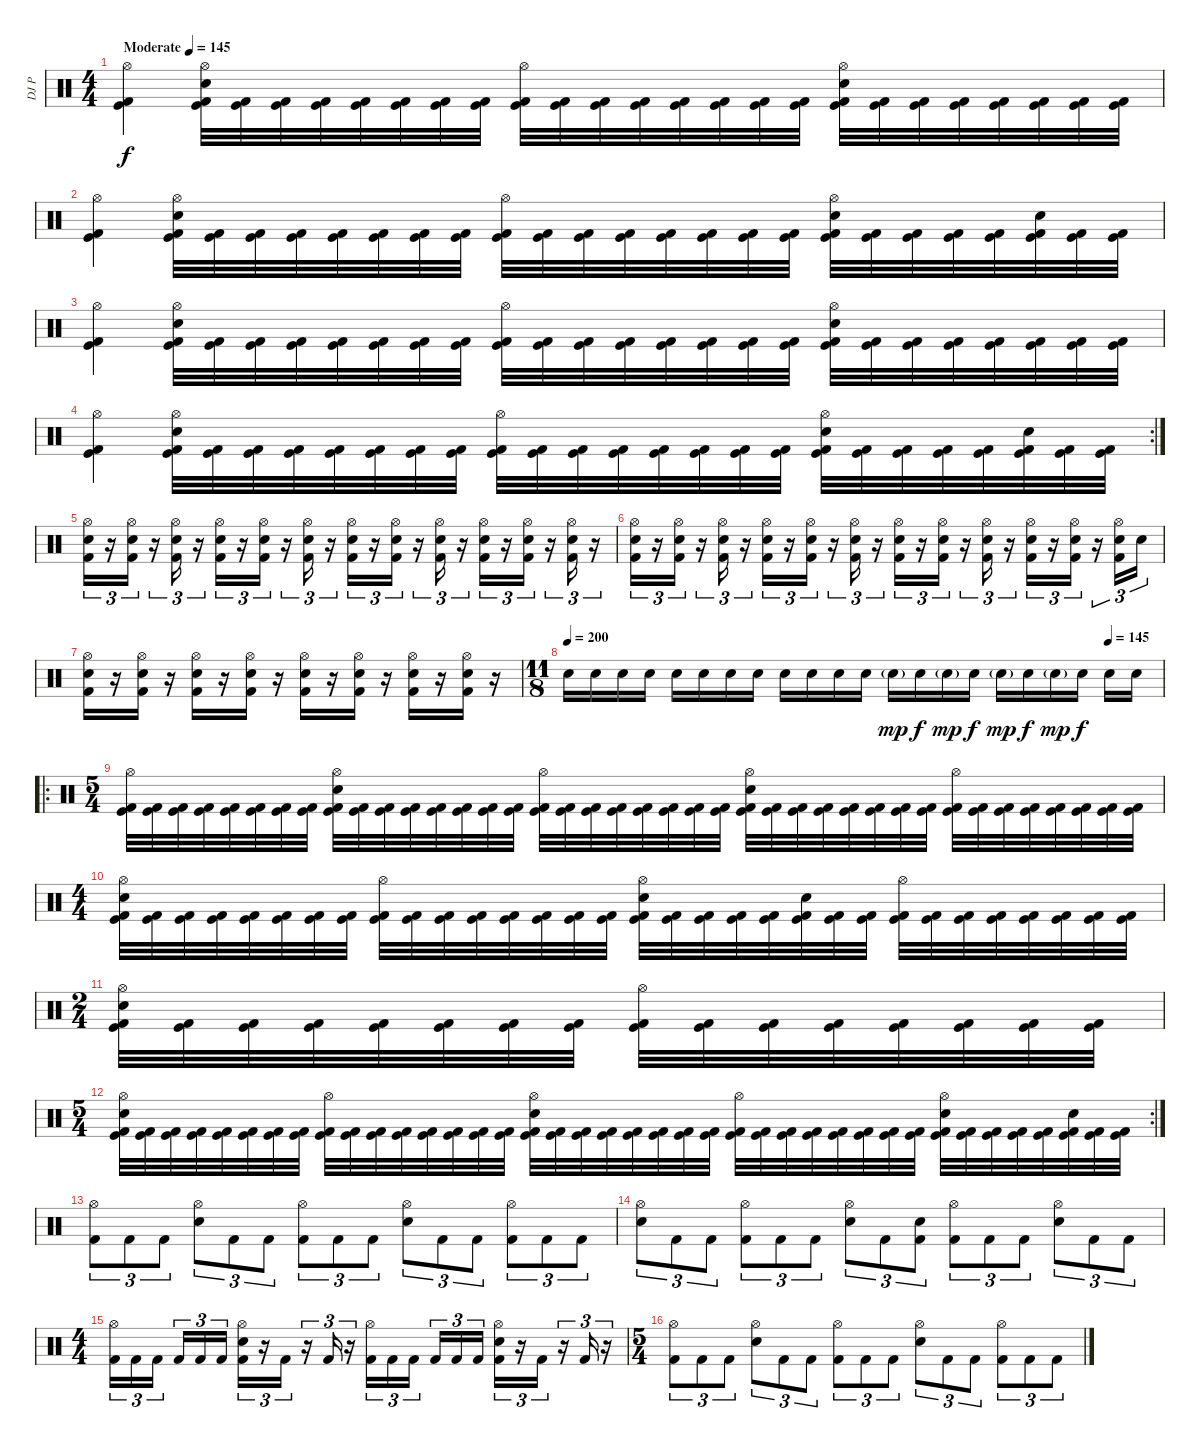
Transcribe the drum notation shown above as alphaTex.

\track ("DJ P" "DJ P") {instrument percussion}
\staff {score}
\articulation defaults
\ts (4 4)
\tempo (145 "Moderate")
\clef neutral
\ks c
("Hi-Hat (open)" "Kick (hit)" "Kick (hit) 2").4{dy f} ("Hi-Hat (open)" "Electric Snare (hit)" "Kick (hit)" "Kick (hit) 2").32 ("Kick (hit)" "Kick (hit) 2").32 ("Kick (hit)" "Kick (hit) 2").32 ("Kick (hit)" "Kick (hit) 2").32 ("Kick (hit)" "Kick (hit) 2").32 ("Kick (hit)" "Kick (hit) 2").32 ("Kick (hit)" "Kick (hit) 2").32 ("Kick (hit)" "Kick (hit) 2").32 ("Hi-Hat (open)" "Kick (hit)" "Kick (hit) 2").32 ("Kick (hit)" "Kick (hit) 2").32 ("Kick (hit)" "Kick (hit) 2").32 ("Kick (hit)" "Kick (hit) 2").32 ("Kick (hit)" "Kick (hit) 2").32 ("Kick (hit)" "Kick (hit) 2").32 ("Kick (hit)" "Kick (hit) 2").32 ("Kick (hit)" "Kick (hit) 2").32 ("Hi-Hat (open)" "Electric Snare (hit)" "Kick (hit)" "Kick (hit) 2").32 ("Kick (hit)" "Kick (hit) 2").32 ("Kick (hit)" "Kick (hit) 2").32 ("Kick (hit)" "Kick (hit) 2").32 ("Kick (hit)" "Kick (hit) 2").32 ("Kick (hit)" "Kick (hit) 2").32 ("Kick (hit)" "Kick (hit) 2").32 ("Kick (hit)" "Kick (hit) 2").32 |
("Hi-Hat (open)" "Kick (hit)" "Kick (hit) 2").4 ("Hi-Hat (open)" "Electric Snare (hit)" "Kick (hit)" "Kick (hit) 2").32 ("Kick (hit)" "Kick (hit) 2").32 ("Kick (hit)" "Kick (hit) 2").32 ("Kick (hit)" "Kick (hit) 2").32 ("Kick (hit)" "Kick (hit) 2").32 ("Kick (hit)" "Kick (hit) 2").32 ("Kick (hit)" "Kick (hit) 2").32 ("Kick (hit)" "Kick (hit) 2").32 ("Hi-Hat (open)" "Kick (hit)" "Kick (hit) 2").32 ("Kick (hit)" "Kick (hit) 2").32 ("Kick (hit)" "Kick (hit) 2").32 ("Kick (hit)" "Kick (hit) 2").32 ("Kick (hit)" "Kick (hit) 2").32 ("Kick (hit)" "Kick (hit) 2").32 ("Kick (hit)" "Kick (hit) 2").32 ("Kick (hit)" "Kick (hit) 2").32 ("Hi-Hat (open)" "Electric Snare (hit)" "Kick (hit)" "Kick (hit) 2").32 ("Kick (hit)" "Kick (hit) 2").32 ("Kick (hit)" "Kick (hit) 2").32 ("Kick (hit)" "Kick (hit) 2").32 ("Kick (hit)" "Kick (hit) 2").32 ("Electric Snare (hit)" "Kick (hit)" "Kick (hit) 2").32 ("Kick (hit)" "Kick (hit) 2").32 ("Kick (hit)" "Kick (hit) 2").32 |
("Hi-Hat (open)" "Kick (hit)" "Kick (hit) 2").4 ("Hi-Hat (open)" "Electric Snare (hit)" "Kick (hit)" "Kick (hit) 2").32 ("Kick (hit)" "Kick (hit) 2").32 ("Kick (hit)" "Kick (hit) 2").32 ("Kick (hit)" "Kick (hit) 2").32 ("Kick (hit)" "Kick (hit) 2").32 ("Kick (hit)" "Kick (hit) 2").32 ("Kick (hit)" "Kick (hit) 2").32 ("Kick (hit)" "Kick (hit) 2").32 ("Hi-Hat (open)" "Kick (hit)" "Kick (hit) 2").32 ("Kick (hit)" "Kick (hit) 2").32 ("Kick (hit)" "Kick (hit) 2").32 ("Kick (hit)" "Kick (hit) 2").32 ("Kick (hit)" "Kick (hit) 2").32 ("Kick (hit)" "Kick (hit) 2").32 ("Kick (hit)" "Kick (hit) 2").32 ("Kick (hit)" "Kick (hit) 2").32 ("Hi-Hat (open)" "Electric Snare (hit)" "Kick (hit)" "Kick (hit) 2").32 ("Kick (hit)" "Kick (hit) 2").32 ("Kick (hit)" "Kick (hit) 2").32 ("Kick (hit)" "Kick (hit) 2").32 ("Kick (hit)" "Kick (hit) 2").32 ("Kick (hit)" "Kick (hit) 2").32 ("Kick (hit)" "Kick (hit) 2").32 ("Kick (hit)" "Kick (hit) 2").32 |
\rc 2
("Hi-Hat (open)" "Kick (hit)" "Kick (hit) 2").4 ("Hi-Hat (open)" "Electric Snare (hit)" "Kick (hit)" "Kick (hit) 2").32 ("Kick (hit)" "Kick (hit) 2").32 ("Kick (hit)" "Kick (hit) 2").32 ("Kick (hit)" "Kick (hit) 2").32 ("Kick (hit)" "Kick (hit) 2").32 ("Kick (hit)" "Kick (hit) 2").32 ("Kick (hit)" "Kick (hit) 2").32 ("Kick (hit)" "Kick (hit) 2").32 ("Hi-Hat (open)" "Kick (hit)" "Kick (hit) 2").32 ("Kick (hit)" "Kick (hit) 2").32 ("Kick (hit)" "Kick (hit) 2").32 ("Kick (hit)" "Kick (hit) 2").32 ("Kick (hit)" "Kick (hit) 2").32 ("Kick (hit)" "Kick (hit) 2").32 ("Kick (hit)" "Kick (hit) 2").32 ("Kick (hit)" "Kick (hit) 2").32 ("Hi-Hat (open)" "Electric Snare (hit)" "Kick (hit)" "Kick (hit) 2").32 ("Kick (hit)" "Kick (hit) 2").32 ("Kick (hit)" "Kick (hit) 2").32 ("Kick (hit)" "Kick (hit) 2").32 ("Kick (hit)" "Kick (hit) 2").32 ("Electric Snare (hit)" "Kick (hit)" "Kick (hit) 2").32 ("Kick (hit)" "Kick (hit) 2").32 ("Kick (hit)" "Kick (hit) 2").32 |
("Hi-Hat (open)" "Electric Snare (hit)" "Kick (hit) 2").16{tu (3 2)} r.16{tu (3 2)} ("Hi-Hat (open)" "Electric Snare (hit)" "Kick (hit) 2").16{tu (3 2)} r.16{tu (3 2)} ("Hi-Hat (open)" "Electric Snare (hit)" "Kick (hit) 2").16{tu (3 2)} r.16{tu (3 2)} ("Hi-Hat (open)" "Electric Snare (hit)" "Kick (hit) 2").16{tu (3 2)} r.16{tu (3 2)} ("Hi-Hat (open)" "Electric Snare (hit)" "Kick (hit) 2").16{tu (3 2)} r.16{tu (3 2)} ("Hi-Hat (open)" "Electric Snare (hit)" "Kick (hit) 2").16{tu (3 2)} r.16{tu (3 2)} ("Hi-Hat (open)" "Electric Snare (hit)" "Kick (hit) 2").16{tu (3 2)} r.16{tu (3 2)} ("Hi-Hat (open)" "Electric Snare (hit)" "Kick (hit) 2").16{tu (3 2)} r.16{tu (3 2)} ("Hi-Hat (open)" "Electric Snare (hit)" "Kick (hit) 2").16{tu (3 2)} r.16{tu (3 2)} ("Hi-Hat (open)" "Electric Snare (hit)" "Kick (hit) 2").16{tu (3 2)} r.16{tu (3 2)} ("Hi-Hat (open)" "Electric Snare (hit)" "Kick (hit) 2").16{tu (3 2)} r.16{tu (3 2)} ("Hi-Hat (open)" "Electric Snare (hit)" "Kick (hit) 2").16{tu (3 2)} r.16{tu (3 2)} |
("Hi-Hat (open)" "Electric Snare (hit)" "Kick (hit) 2").16{tu (3 2)} r.16{tu (3 2)} ("Hi-Hat (open)" "Electric Snare (hit)" "Kick (hit) 2").16{tu (3 2)} r.16{tu (3 2)} ("Hi-Hat (open)" "Electric Snare (hit)" "Kick (hit) 2").16{tu (3 2)} r.16{tu (3 2)} ("Hi-Hat (open)" "Electric Snare (hit)" "Kick (hit) 2").16{tu (3 2)} r.16{tu (3 2)} ("Hi-Hat (open)" "Electric Snare (hit)" "Kick (hit) 2").16{tu (3 2)} r.16{tu (3 2)} ("Hi-Hat (open)" "Electric Snare (hit)" "Kick (hit) 2").16{tu (3 2)} r.16{tu (3 2)} ("Hi-Hat (open)" "Electric Snare (hit)" "Kick (hit) 2").16{tu (3 2)} r.16{tu (3 2)} ("Hi-Hat (open)" "Electric Snare (hit)" "Kick (hit) 2").16{tu (3 2)} r.16{tu (3 2)} ("Hi-Hat (open)" "Electric Snare (hit)" "Kick (hit) 2").16{tu (3 2)} r.16{tu (3 2)} ("Hi-Hat (open)" "Electric Snare (hit)" "Kick (hit) 2").16{tu (3 2)} r.16{tu (3 2)} ("Hi-Hat (open)" "Electric Snare (hit)" "Kick (hit) 2").16{tu (3 2)} r.16{tu (3 2)} ("Hi-Hat (open)" "Electric Snare (hit)" "Kick (hit) 2").16{tu (3 2)} "Electric Snare (hit)".16{tu (3 2)} |
("Hi-Hat (open)" "Electric Snare (hit)" "Kick (hit) 2").16 r.16 ("Hi-Hat (open)" "Electric Snare (hit)" "Kick (hit) 2").16 r.16 ("Hi-Hat (open)" "Electric Snare (hit)" "Kick (hit) 2").16 r.16 ("Hi-Hat (open)" "Electric Snare (hit)" "Kick (hit) 2").16 r.16 ("Hi-Hat (open)" "Electric Snare (hit)" "Kick (hit) 2").16 r.16 ("Hi-Hat (open)" "Electric Snare (hit)" "Kick (hit) 2").16 r.16 ("Hi-Hat (open)" "Electric Snare (hit)" "Kick (hit) 2").16 r.16 ("Hi-Hat (open)" "Electric Snare (hit)" "Kick (hit) 2").16 r.16 |
\ts (11 8)
\tempo 200
\tempo (145 0.9090909090909091)
"Electric Snare (hit)".16{volume 4} "Electric Snare (hit)".16 "Electric Snare (hit)".16 "Electric Snare (hit)".16{volume 16} "Electric Snare (hit)".16 "Electric Snare (hit)".16 "Electric Snare (hit)".16 "Electric Snare (hit)".16 "Electric Snare (hit)".16 "Electric Snare (hit)".16 "Electric Snare (hit)".16 "Electric Snare (hit)".16 "Electric Snare (hit)"{g}.16{dy mp} "Electric Snare (hit)".16{dy f} "Electric Snare (hit)"{g}.16{dy mp} "Electric Snare (hit)".16{dy f} "Electric Snare (hit)"{g}.16{dy mp} "Electric Snare (hit)".16{dy f} "Electric Snare (hit)"{g}.16{dy mp} "Electric Snare (hit)".16{dy f} "Electric Snare (hit)".16 "Electric Snare (hit)".16 |
\ro
\ts (5 4)
("Hi-Hat (open)" "Kick (hit)" "Kick (hit) 2").32 ("Kick (hit)" "Kick (hit) 2").32 ("Kick (hit)" "Kick (hit) 2").32 ("Kick (hit)" "Kick (hit) 2").32 ("Kick (hit)" "Kick (hit) 2").32 ("Kick (hit)" "Kick (hit) 2").32 ("Kick (hit)" "Kick (hit) 2").32 ("Kick (hit)" "Kick (hit) 2").32 ("Hi-Hat (open)" "Electric Snare (hit)" "Kick (hit)" "Kick (hit) 2").32 ("Kick (hit)" "Kick (hit) 2").32 ("Kick (hit)" "Kick (hit) 2").32 ("Kick (hit)" "Kick (hit) 2").32 ("Kick (hit)" "Kick (hit) 2").32 ("Kick (hit)" "Kick (hit) 2").32 ("Kick (hit)" "Kick (hit) 2").32 ("Kick (hit)" "Kick (hit) 2").32 ("Hi-Hat (open)" "Kick (hit)" "Kick (hit) 2").32 ("Kick (hit)" "Kick (hit) 2").32 ("Kick (hit)" "Kick (hit) 2").32 ("Kick (hit)" "Kick (hit) 2").32 ("Kick (hit)" "Kick (hit) 2").32 ("Kick (hit)" "Kick (hit) 2").32 ("Kick (hit)" "Kick (hit) 2").32 ("Kick (hit)" "Kick (hit) 2").32 ("Hi-Hat (open)" "Electric Snare (hit)" "Kick (hit)" "Kick (hit) 2").32 ("Kick (hit)" "Kick (hit) 2").32 ("Kick (hit)" "Kick (hit) 2").32 ("Kick (hit)" "Kick (hit) 2").32 ("Kick (hit)" "Kick (hit) 2").32 ("Kick (hit)" "Kick (hit) 2").32 ("Kick (hit)" "Kick (hit) 2").32 ("Kick (hit)" "Kick (hit) 2").32 ("Hi-Hat (open)" "Kick (hit)" "Kick (hit) 2").32 ("Kick (hit)" "Kick (hit) 2").32 ("Kick (hit)" "Kick (hit) 2").32 ("Kick (hit)" "Kick (hit) 2").32 ("Kick (hit)" "Kick (hit) 2").32 ("Kick (hit)" "Kick (hit) 2").32 ("Kick (hit)" "Kick (hit) 2").32 ("Kick (hit)" "Kick (hit) 2").32 |
\ts (4 4)
("Hi-Hat (open)" "Electric Snare (hit)" "Kick (hit)" "Kick (hit) 2").32 ("Kick (hit)" "Kick (hit) 2").32 ("Kick (hit)" "Kick (hit) 2").32 ("Kick (hit)" "Kick (hit) 2").32 ("Kick (hit)" "Kick (hit) 2").32 ("Kick (hit)" "Kick (hit) 2").32 ("Kick (hit)" "Kick (hit) 2").32 ("Kick (hit)" "Kick (hit) 2").32 ("Hi-Hat (open)" "Kick (hit)" "Kick (hit) 2").32 ("Kick (hit)" "Kick (hit) 2").32 ("Kick (hit)" "Kick (hit) 2").32 ("Kick (hit)" "Kick (hit) 2").32 ("Kick (hit)" "Kick (hit) 2").32 ("Kick (hit)" "Kick (hit) 2").32 ("Kick (hit)" "Kick (hit) 2").32 ("Kick (hit)" "Kick (hit) 2").32 ("Hi-Hat (open)" "Electric Snare (hit)" "Kick (hit)" "Kick (hit) 2").32 ("Kick (hit)" "Kick (hit) 2").32 ("Kick (hit)" "Kick (hit) 2").32 ("Kick (hit)" "Kick (hit) 2").32 ("Kick (hit)" "Kick (hit) 2").32 ("Electric Snare (hit)" "Kick (hit)" "Kick (hit) 2").32 ("Kick (hit)" "Kick (hit) 2").32 ("Kick (hit)" "Kick (hit) 2").32 ("Hi-Hat (open)" "Kick (hit)" "Kick (hit) 2").32 ("Kick (hit)" "Kick (hit) 2").32 ("Kick (hit)" "Kick (hit) 2").32 ("Kick (hit)" "Kick (hit) 2").32 ("Kick (hit)" "Kick (hit) 2").32 ("Kick (hit)" "Kick (hit) 2").32 ("Kick (hit)" "Kick (hit) 2").32 ("Kick (hit)" "Kick (hit) 2").32 |
\ts (2 4)
("Hi-Hat (open)" "Electric Snare (hit)" "Kick (hit)" "Kick (hit) 2").32 ("Kick (hit)" "Kick (hit) 2").32 ("Kick (hit)" "Kick (hit) 2").32 ("Kick (hit)" "Kick (hit) 2").32 ("Kick (hit)" "Kick (hit) 2").32 ("Kick (hit)" "Kick (hit) 2").32 ("Kick (hit)" "Kick (hit) 2").32 ("Kick (hit)" "Kick (hit) 2").32 ("Hi-Hat (open)" "Kick (hit)" "Kick (hit) 2").32 ("Kick (hit)" "Kick (hit) 2").32 ("Kick (hit)" "Kick (hit) 2").32 ("Kick (hit)" "Kick (hit) 2").32 ("Kick (hit)" "Kick (hit) 2").32 ("Kick (hit)" "Kick (hit) 2").32 ("Kick (hit)" "Kick (hit) 2").32 ("Kick (hit)" "Kick (hit) 2").32 |
\rc 2
\ts (5 4)
("Hi-Hat (open)" "Electric Snare (hit)" "Kick (hit)" "Kick (hit) 2").32 ("Kick (hit)" "Kick (hit) 2").32 ("Kick (hit)" "Kick (hit) 2").32 ("Kick (hit)" "Kick (hit) 2").32 ("Kick (hit)" "Kick (hit) 2").32 ("Kick (hit)" "Kick (hit) 2").32 ("Kick (hit)" "Kick (hit) 2").32 ("Kick (hit)" "Kick (hit) 2").32 ("Hi-Hat (open)" "Kick (hit)" "Kick (hit) 2").32 ("Kick (hit)" "Kick (hit) 2").32 ("Kick (hit)" "Kick (hit) 2").32 ("Kick (hit)" "Kick (hit) 2").32 ("Kick (hit)" "Kick (hit) 2").32 ("Kick (hit)" "Kick (hit) 2").32 ("Kick (hit)" "Kick (hit) 2").32 ("Kick (hit)" "Kick (hit) 2").32 ("Hi-Hat (open)" "Electric Snare (hit)" "Kick (hit)" "Kick (hit) 2").32 ("Kick (hit)" "Kick (hit) 2").32 ("Kick (hit)" "Kick (hit) 2").32 ("Kick (hit)" "Kick (hit) 2").32 ("Kick (hit)" "Kick (hit) 2").32 ("Kick (hit)" "Kick (hit) 2").32 ("Kick (hit)" "Kick (hit) 2").32 ("Kick (hit)" "Kick (hit) 2").32 ("Hi-Hat (open)" "Kick (hit)" "Kick (hit) 2").32 ("Kick (hit)" "Kick (hit) 2").32 ("Kick (hit)" "Kick (hit) 2").32 ("Kick (hit)" "Kick (hit) 2").32 ("Kick (hit)" "Kick (hit) 2").32 ("Kick (hit)" "Kick (hit) 2").32 ("Kick (hit)" "Kick (hit) 2").32 ("Kick (hit)" "Kick (hit) 2").32 ("Hi-Hat (open)" "Electric Snare (hit)" "Kick (hit)" "Kick (hit) 2").32 ("Kick (hit)" "Kick (hit) 2").32 ("Kick (hit)" "Kick (hit) 2").32 ("Kick (hit)" "Kick (hit) 2").32 ("Kick (hit)" "Kick (hit) 2").32 ("Electric Snare (hit)" "Kick (hit)" "Kick (hit) 2").32 ("Kick (hit)" "Kick (hit) 2").32 ("Kick (hit)" "Kick (hit) 2").32 |
("Hi-Hat (open)" "Kick (hit) 2").8{tu (3 2)} "Kick (hit) 2".8{tu (3 2)} "Kick (hit) 2".8{tu (3 2)} ("Hi-Hat (open)" "Electric Snare (hit)").8{tu (3 2)} "Kick (hit) 2".8{tu (3 2)} "Kick (hit) 2".8{tu (3 2)} ("Hi-Hat (open)" "Kick (hit) 2").8{tu (3 2)} "Kick (hit) 2".8{tu (3 2)} "Kick (hit) 2".8{tu (3 2)} ("Hi-Hat (open)" "Electric Snare (hit)").8{tu (3 2)} "Kick (hit) 2".8{tu (3 2)} "Kick (hit) 2".8{tu (3 2)} ("Hi-Hat (open)" "Kick (hit) 2").8{tu (3 2)} "Kick (hit) 2".8{tu (3 2)} "Kick (hit) 2".8{tu (3 2)} |
("Hi-Hat (open)" "Electric Snare (hit)").8{tu (3 2)} "Kick (hit) 2".8{tu (3 2)} "Kick (hit) 2".8{tu (3 2)} ("Hi-Hat (open)" "Kick (hit) 2").8{tu (3 2)} "Kick (hit) 2".8{tu (3 2)} "Kick (hit) 2".8{tu (3 2)} ("Hi-Hat (open)" "Electric Snare (hit)").8{tu (3 2)} "Kick (hit) 2".8{tu (3 2)} ("Electric Snare (hit)" "Kick (hit) 2").8{tu (3 2)} ("Hi-Hat (open)" "Kick (hit) 2").8{tu (3 2)} "Kick (hit) 2".8{tu (3 2)} "Kick (hit) 2".8{tu (3 2)} ("Hi-Hat (open)" "Electric Snare (hit)").8{tu (3 2)} "Kick (hit) 2".8{tu (3 2)} "Kick (hit) 2".8{tu (3 2)} |
\ts (4 4)
("Hi-Hat (open)" "Kick (hit) 2").16{tu (3 2)} "Kick (hit) 2".16{tu (3 2)} "Kick (hit) 2".16{tu (3 2) beam splitsecondary} "Kick (hit) 2".16{tu (3 2)} "Kick (hit) 2".16{tu (3 2)} "Kick (hit) 2".16{tu (3 2)} ("Hi-Hat (open)" "Electric Snare (hit)" "Kick (hit) 2").16{tu (3 2)} r.16{tu (3 2)} "Kick (hit) 2".16{tu (3 2)} r.16{tu (3 2)} "Kick (hit) 2".16{tu (3 2)} r.16{tu (3 2)} ("Hi-Hat (open)" "Kick (hit) 2").16{tu (3 2)} "Kick (hit) 2".16{tu (3 2)} "Kick (hit) 2".16{tu (3 2) beam splitsecondary} "Kick (hit) 2".16{tu (3 2)} "Kick (hit) 2".16{tu (3 2)} "Kick (hit) 2".16{tu (3 2)} ("Hi-Hat (open)" "Electric Snare (hit)" "Kick (hit) 2").16{tu (3 2)} r.16{tu (3 2)} "Kick (hit) 2".16{tu (3 2)} r.16{tu (3 2)} "Kick (hit) 2".16{tu (3 2)} r.16{tu (3 2)} |
\ts (5 4)
("Hi-Hat (open)" "Kick (hit) 2").8{tu (3 2)} "Kick (hit) 2".8{tu (3 2)} "Kick (hit) 2".8{tu (3 2)} ("Hi-Hat (open)" "Electric Snare (hit)").8{tu (3 2)} "Kick (hit) 2".8{tu (3 2)} "Kick (hit) 2".8{tu (3 2)} ("Hi-Hat (open)" "Kick (hit) 2").8{tu (3 2)} "Kick (hit) 2".8{tu (3 2)} "Kick (hit) 2".8{tu (3 2)} ("Hi-Hat (open)" "Electric Snare (hit)").8{tu (3 2)} "Kick (hit) 2".8{tu (3 2)} "Kick (hit) 2".8{tu (3 2)} ("Hi-Hat (open)" "Kick (hit) 2").8{tu (3 2)} "Kick (hit) 2".8{tu (3 2)} "Kick (hit) 2".8{tu (3 2)}
